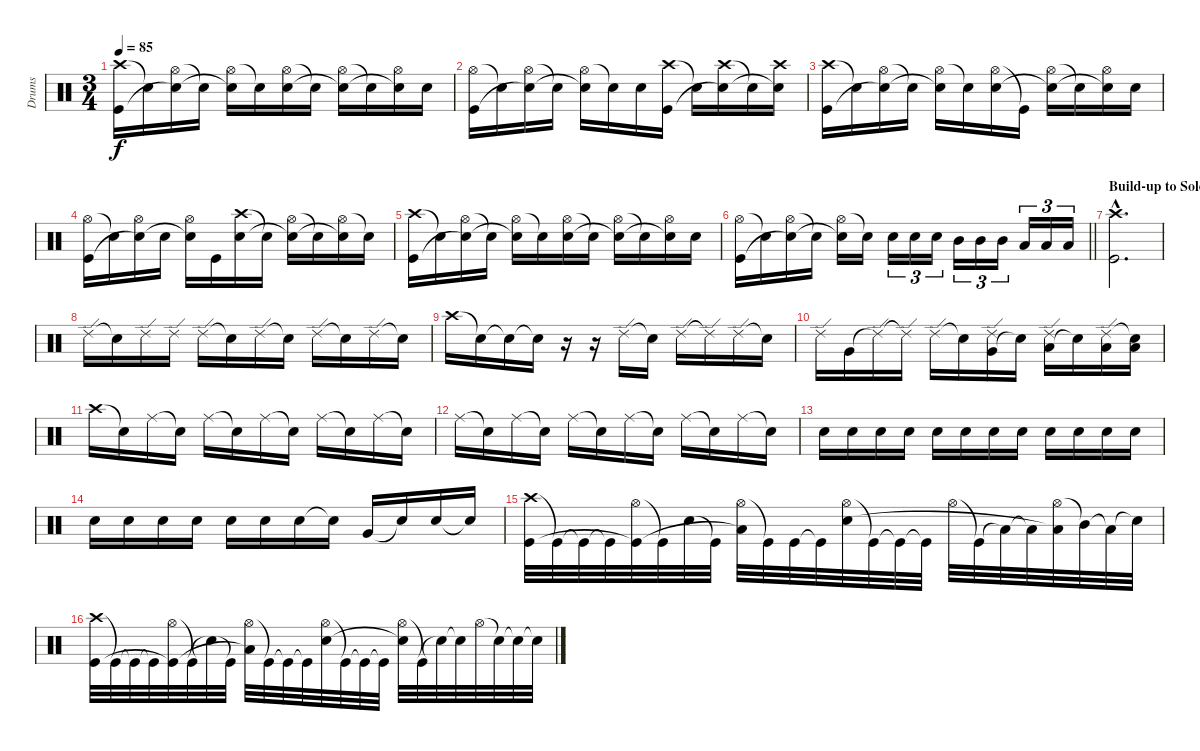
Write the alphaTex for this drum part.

\track ("Drums" "Drums") {instrument percussion}
\staff {score}
\articulation defaults
\ts (3 4)
\tempo 85
\clef neutral
\ks c
("Crash high (hit)" "Kick (hit)").16{dy f} "Snare (hit)"{t}.16 ("Hi-Hat (open)" "Snare (hit)"{t}).16 "Snare (hit)"{t}.16 ("Hi-Hat (open)" "Snare (hit)"{t}).16 "Snare (hit)"{t}.16 ("Hi-Hat (open)" "Electric Snare (hit)").16 "Snare (hit)"{t}.16 ("Hi-Hat (open)" "Snare (hit)"{t}).16 "Snare (hit)"{t}.16 ("Hi-Hat (open)" "Snare (hit)"{t}).16 "Electric Snare (hit)".16 |
("Hi-Hat (open)" "Kick (hit)").16 "Snare (hit)"{t}.16 ("Hi-Hat (open)" "Snare (hit)"{t}).16 "Snare (hit)"{t}.16 ("Hi-Hat (open)" "Snare (hit)"{t}).16 "Snare (hit)"{t}.16 "Electric Snare (hit)".16 ("Crash high (hit)" "Kick (hit)").16 "Snare (hit)"{t}.16 ("Crash high (hit)" "Snare (hit)"{t}).16 "Snare (hit)"{t}.16 ("Crash high (hit)" "Snare (hit)"{t}).16 |
("Crash high (hit)" "Kick (hit)").16 "Snare (hit)"{t}.16 ("Hi-Hat (open)" "Snare (hit)"{t}).16 "Snare (hit)"{t}.16 ("Hi-Hat (open)" "Snare (hit)"{t}).16 "Snare (hit)"{t}.16 ("Hi-Hat (open)" "Electric Snare (hit)").16 "Kick (hit)"{t}.16 ("Hi-Hat (open)" "Snare (hit)"{t}).16 "Snare (hit)"{t}.16 ("Hi-Hat (open)" "Snare (hit)"{t}).16 "Electric Snare (hit)".16 |
("Hi-Hat (open)" "Kick (hit)").16 "Snare (hit)"{t}.16 ("Hi-Hat (open)" "Snare (hit)"{t}).16 "Electric Snare (hit)".16 ("Hi-Hat (open)" "Snare (hit)"{t}).16 "Kick (hit)".16 ("Crash high (hit)" "Electric Snare (hit)").16 "Snare (hit)"{t}.16 ("Hi-Hat (open)" "Snare (hit)"{t}).16 "Snare (hit)"{t}.16 ("Hi-Hat (open)" "Snare (hit)"{t}).16 "Snare (hit)"{t}.16 |
("Crash high (hit)" "Kick (hit)").16 "Snare (hit)"{t}.16 ("Hi-Hat (open)" "Snare (hit)"{t}).16 "Snare (hit)"{t}.16 ("Hi-Hat (open)" "Snare (hit)"{t}).16 "Snare (hit)"{t}.16 ("Hi-Hat (open)" "Electric Snare (hit)").16 "Snare (hit)"{t}.16 ("Hi-Hat (open)" "Snare (hit)"{t}).16 "Snare (hit)"{t}.16 ("Hi-Hat (open)" "Snare (hit)"{t}).16 "Electric Snare (hit)".16 |
\barLineRight lightlight
("Hi-Hat (open)" "Kick (hit)").16 "Snare (hit)"{t}.16 ("Hi-Hat (open)" "Snare (hit)"{t}).16 "Snare (hit)"{t}.16 ("Hi-Hat (open)" "Snare (hit)"{t}).16 "Snare (hit)"{t}.16 "Electric Snare (hit)".16{tu (3 2)} "Electric Snare (hit)".16{tu (3 2)} "Electric Snare (hit)".16{tu (3 2)} "Mid Tom (hit)".16{tu (3 2)} "Mid Tom (hit)".16{tu (3 2)} "Mid Tom (hit)".16{tu (3 2)} "Low Tom (hit)".16{tu (3 2)} "Low Tom (hit)".16{tu (3 2)} "Low Tom (hit)".16{tu (3 2)} |
\section ("" "Build-up to Solo")
("Crash high (hit)"{hac} "Kick (hit)"{hac}).2{d} |
"Ride (edge) 2".16 "Snare (hit)"{t}.16 "Ride (edge) 2".16 "Ride (edge) 2".16 "Ride (edge) 2".16 "Snare (hit)"{t}.16 "Ride (edge) 2".16 "Snare (hit)"{t}.16 "Ride (edge) 2".16 "Snare (hit)"{t}.16 "Ride (edge) 2".16 "Snare (hit)"{t}.16 |
"Crash high (hit)".16 "Snare (hit)"{t}.16 "Snare (hit)"{t}.16 "Snare (hit)"{t}.16 r.16 r.16 "Ride (edge) 2".16 "Snare (hit)"{t}.16 "Ride (edge) 2".16 "Ride (edge) 2"{t}.16 "Ride (edge) 2".16 "Snare (hit)"{t}.16 |
"Ride (edge) 2".16 "Very Low Tom (hit)".16 "Ride (edge) 2"{t}.16 "Ride (edge) 2"{t}.16 "Ride (edge) 2".16 "Snare (hit)"{t}.16 ("Very Low Tom (hit)" "Ride (edge) 2").16 "Snare (hit)"{t}.16 ("Low Floor Tom (hit)" "Ride (edge) 2").16 "Snare (hit)"{t}.16 ("Low Floor Tom (hit)" "Ride (edge) 2").16 ("Low Floor Tom (hit)" "Snare (hit)"{t}).16 |
"Crash high (hit)".16 "Snare (hit)"{t}.16 "Ride (middle)".16 "Snare (hit)"{t}.16 "Ride (middle)".16 "Snare (hit)"{t}.16 "Ride (middle)".16 "Snare (hit)"{t}.16 "Ride (middle)".16 "Snare (hit)"{t}.16 "Ride (middle)".16 "Snare (hit)"{t}.16 |
"Ride (middle)".16 "Snare (hit)"{t}.16 "Ride (middle)".16 "Snare (hit)"{t}.16 "Ride (middle)".16 "Snare (hit)"{t}.16 "Ride (middle)".16 "Snare (hit)"{t}.16 "Ride (middle)".16 "Snare (hit)"{t}.16 "Ride (middle)".16 "Snare (hit)"{t}.16{volume 4} |
"Electric Snare (hit)".16{volume 13} "Electric Snare (hit)".16 "Electric Snare (hit)".16 "Electric Snare (hit)".16 "Electric Snare (hit)".16 "Electric Snare (hit)".16 "Electric Snare (hit)".16 "Electric Snare (hit)".16 "Electric Snare (hit)".16 "Electric Snare (hit)".16 "Electric Snare (hit)".16 "Electric Snare (hit)".16 |
"Electric Snare (hit)".16 "Electric Snare (hit)".16 "Electric Snare (hit)".16 "Electric Snare (hit)".16 "Electric Snare (hit)".16 "Electric Snare (hit)".16 "Electric Snare (hit)".16 "Electric Snare (hit)"{t}.16 "Very Low Tom (hit)".16 "Electric Snare (hit)"{t}.16 "Electric Snare (hit)".16 "Electric Snare (hit)"{t}.16 |
("Crash high (hit)" "Kick (hit)").32 "Kick (hit)"{t}.32 "Kick (hit)"{t}.32 "Kick (hit)"{t}.32 ("Hi-Hat (open)" "Kick (hit)"{t}).32 "Kick (hit)"{t}.32 "Electric Snare (hit)".32 "Kick (hit)"{t}.32 ("Hi-Hat (open)" "Low Floor Tom (hit)"{t}).32 "Kick (hit)"{t}.32 "Kick (hit)".32 "Kick (hit)"{t}.32 ("Hi-Hat (open)" "Electric Snare (hit)").32 "Kick (hit)"{t}.32 "Kick (hit)"{t}.32 "Kick (hit)"{t}.32 "Hi-Hat (open)".32 "Kick (hit)"{t}.32 "Low Floor Tom (hit)"{t}.32 "Low Floor Tom (hit)"{t}.32 ("Hi-Hat (open)" "Low Floor Tom (hit)"{t}).32 "Mid Tom (hit)"{t}.32 "Low Floor Tom (hit)"{t}.32 "Snare (hit)"{t}.32 |
("Crash high (hit)" "Kick (hit)").32 "Kick (hit)"{t}.32 "Kick (hit)"{t}.32 "Kick (hit)"{t}.32 ("Hi-Hat (open)" "Kick (hit)"{t}).32 "Kick (hit)"{t}.32 "Electric Snare (hit)"{t}.32 "Kick (hit)"{t}.32 ("Hi-Hat (open)" "Low Floor Tom (hit)"{t}).32 "Kick (hit)"{t}.32 "Kick (hit)"{t}.32 "Kick (hit)"{t}.32 ("Hi-Hat (open)" "Electric Snare (hit)").32 "Kick (hit)"{t}.32 "Kick (hit)"{t}.32 "Kick (hit)"{t}.32 ("Hi-Hat (open)" "Electric Snare (hit)"{t}).32 "Kick (hit)"{t}.32 "Snare (hit)"{t}.32 "Snare (hit)"{t}.32 "Hi-Hat (open)".32 "Snare (hit)"{t}.32 "Snare (hit)"{t}.32 "Snare (hit)"{t}.32
